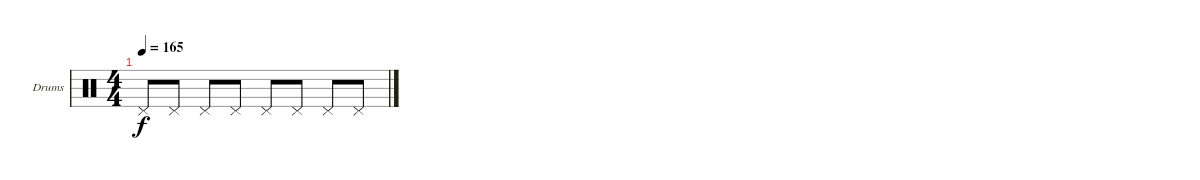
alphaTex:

\bracketExtendMode groupsimilarinstruments
\firstSystemTrackNameOrientation horizontal
\otherSystemsTrackNameOrientation horizontal
\track ("Drumkit" "Drums") {instrument percussion}
\staff {score}
\articulation defaults
\ts (4 4)
\tempo 165
\clef neutral
\scale
0.333333
\ks c "Pedal Hi-Hat (hit)".8{dy f} "Pedal Hi-Hat (hit)".8 "Pedal Hi-Hat (hit)".8 "Pedal Hi-Hat (hit)".8 "Pedal Hi-Hat (hit)".8 "Pedal Hi-Hat (hit)".8 "Pedal Hi-Hat (hit)".8 "Pedal Hi-Hat (hit)".8
|
\scale
0.333333 |
\scale
0.333333 |
\scale
0.333333 |
\scale
0.333333 |
\scale
0.333333 |
\scale
0.333333 |
\scale
0.333333 |
\scale
0.333333 |
\scale
0.333333 |
\scale
0.333333 |
\scale
0.333333 |
\scale
0.333333 |
\scale
0.333333 |
\scale
0.333333 |
\scale
0.333333
